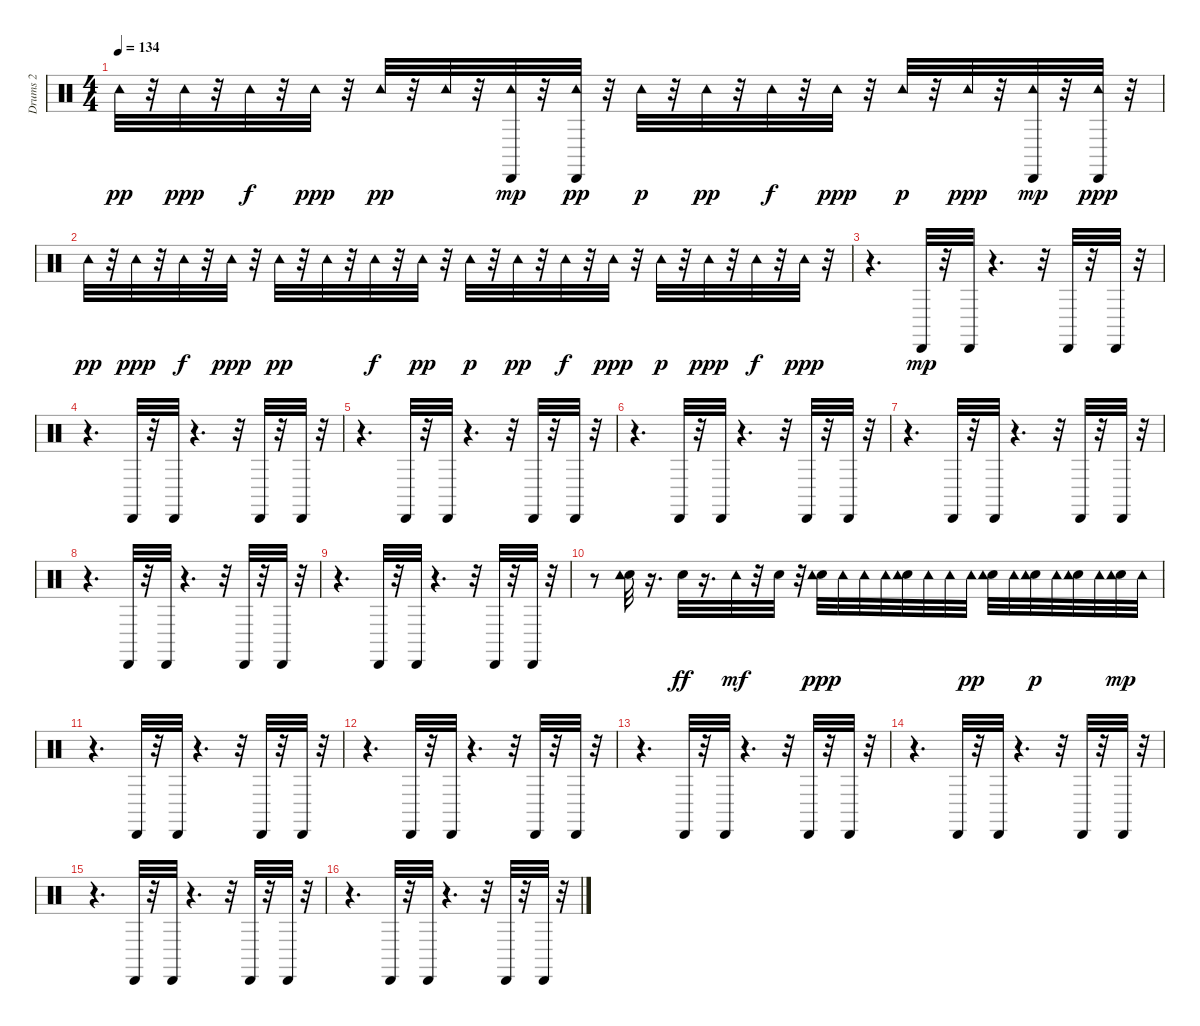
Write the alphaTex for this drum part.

\track ("Drums 2" "Drums 2") {instrument percussion}
\staff {score}
\articulation defaults
\ts (4 4)
\tempo 134
\clef neutral
\ks c "Tambourine (hit)".32{dy pp}
r.32 "Tambourine (hit)".32{dy ppp} r.32 "Tambourine (hit)".32{dy f} r.32 "Tambourine (hit)".32{dy ppp} r.32 "Tambourine (hit)".32{dy pp} r.32 "Tambourine (hit)".32 r.32 ("Cabasa (hit)" "Tambourine (hit)").32{dy mp} r.32 ("Cabasa (hit)" "Tambourine (hit)").32{dy pp} r.32 "Tambourine (hit)".32{dy p} r.32 "Tambourine (hit)".32{dy pp} r.32 "Tambourine (hit)".32{dy f} r.32 "Tambourine (hit)".32{dy ppp} r.32 "Tambourine (hit)".32{dy p} r.32 "Tambourine (hit)".32{dy ppp} r.32 ("Cabasa (hit)" "Tambourine (hit)").32{dy mp} r.32 ("Cabasa (hit)" "Tambourine (hit)").32{dy ppp} r.32 |
"Tambourine (hit)".32{dy pp} r.32 "Tambourine (hit)".32{dy ppp} r.32 "Tambourine (hit)".32{dy f} r.32 "Tambourine (hit)".32{dy ppp} r.32 "Tambourine (hit)".32{dy pp} r.32 "Tambourine (hit)".32 r.32 "Tambourine (hit)".32{dy f} r.32 "Tambourine (hit)".32{dy pp} r.32 "Tambourine (hit)".32{dy p} r.32 "Tambourine (hit)".32{dy pp} r.32 "Tambourine (hit)".32{dy f} r.32 "Tambourine (hit)".32{dy ppp} r.32 "Tambourine (hit)".32{dy p} r.32 "Tambourine (hit)".32{dy ppp} r.32 "Tambourine (hit)".32{dy f} r.32 "Tambourine (hit)".32{dy ppp} r.32 |
r.4{d} "Cabasa (hit)".32{dy mp} r.32 "Cabasa (hit)".32 r.4{d} r.32 "Cabasa (hit)".32 r.32 "Cabasa (hit)".32 r.32 |
r.4{d} "Cabasa (hit)".32 r.32 "Cabasa (hit)".32 r.4{d} r.32 "Cabasa (hit)".32 r.32 "Cabasa (hit)".32 r.32 |
r.4{d} "Cabasa (hit)".32 r.32 "Cabasa (hit)".32 r.4{d} r.32 "Cabasa (hit)".32 r.32 "Cabasa (hit)".32 r.32 |
r.4{d} "Cabasa (hit)".32 r.32 "Cabasa (hit)".32 r.4{d} r.32 "Cabasa (hit)".32 r.32 "Cabasa (hit)".32 r.32 |
r.4{d} "Cabasa (hit)".32 r.32 "Cabasa (hit)".32 r.4{d} r.32 "Cabasa (hit)".32 r.32 "Cabasa (hit)".32 r.32 |
r.4{d} "Cabasa (hit)".32 r.32 "Cabasa (hit)".32 r.4{d} r.32 "Cabasa (hit)".32 r.32 "Cabasa (hit)".32 r.32 |
r.4{d} "Cabasa (hit)".32 r.32 "Cabasa (hit)".32 r.4{d} r.32 "Cabasa (hit)".32 r.32 "Cabasa (hit)".32 r.32 |
r.8 ("Snare (hit) 2" "Tambourine (hit)").32 r.16{d} "Snare (hit) 2".32{dy ff} r.16{d} "Tambourine (hit)".32{dy mf} r.32 "Snare (hit) 2".32 r.32 ("Snare (hit) 2" "Tambourine (hit)").32{dy ppp} "Tambourine (hit)".32 "Tambourine (hit)".32 "Tambourine (hit)".32 ("Snare (hit) 2" "Tambourine (hit)").32 "Tambourine (hit)".32 "Tambourine (hit)".32 "Tambourine (hit)".32{dy pp} ("Snare (hit) 2" "Tambourine (hit)").32 "Tambourine (hit)".32 ("Snare (hit) 2" "Tambourine (hit)").32{dy p} "Tambourine (hit)".32 ("Snare (hit) 2" "Tambourine (hit)").32 "Tambourine (hit)".32 ("Snare (hit) 2" "Tambourine (hit)").32{dy mp} "Tambourine (hit)".32 |
r.4{d} "Cabasa (hit)".32 r.32 "Cabasa (hit)".32 r.4{d} r.32 "Cabasa (hit)".32 r.32 "Cabasa (hit)".32 r.32 |
r.4{d} "Cabasa (hit)".32 r.32 "Cabasa (hit)".32 r.4{d} r.32 "Cabasa (hit)".32 r.32 "Cabasa (hit)".32 r.32 |
r.4{d} "Cabasa (hit)".32 r.32 "Cabasa (hit)".32 r.4{d} r.32 "Cabasa (hit)".32 r.32 "Cabasa (hit)".32 r.32 |
r.4{d} "Cabasa (hit)".32 r.32 "Cabasa (hit)".32 r.4{d} r.32 "Cabasa (hit)".32 r.32 "Cabasa (hit)".32 r.32 |
r.4{d} "Cabasa (hit)".32 r.32 "Cabasa (hit)".32 r.4{d} r.32 "Cabasa (hit)".32 r.32 "Cabasa (hit)".32 r.32 |
r.4{d} "Cabasa (hit)".32 r.32 "Cabasa (hit)".32 r.4{d} r.32 "Cabasa (hit)".32 r.32 "Cabasa (hit)".32 r.32
